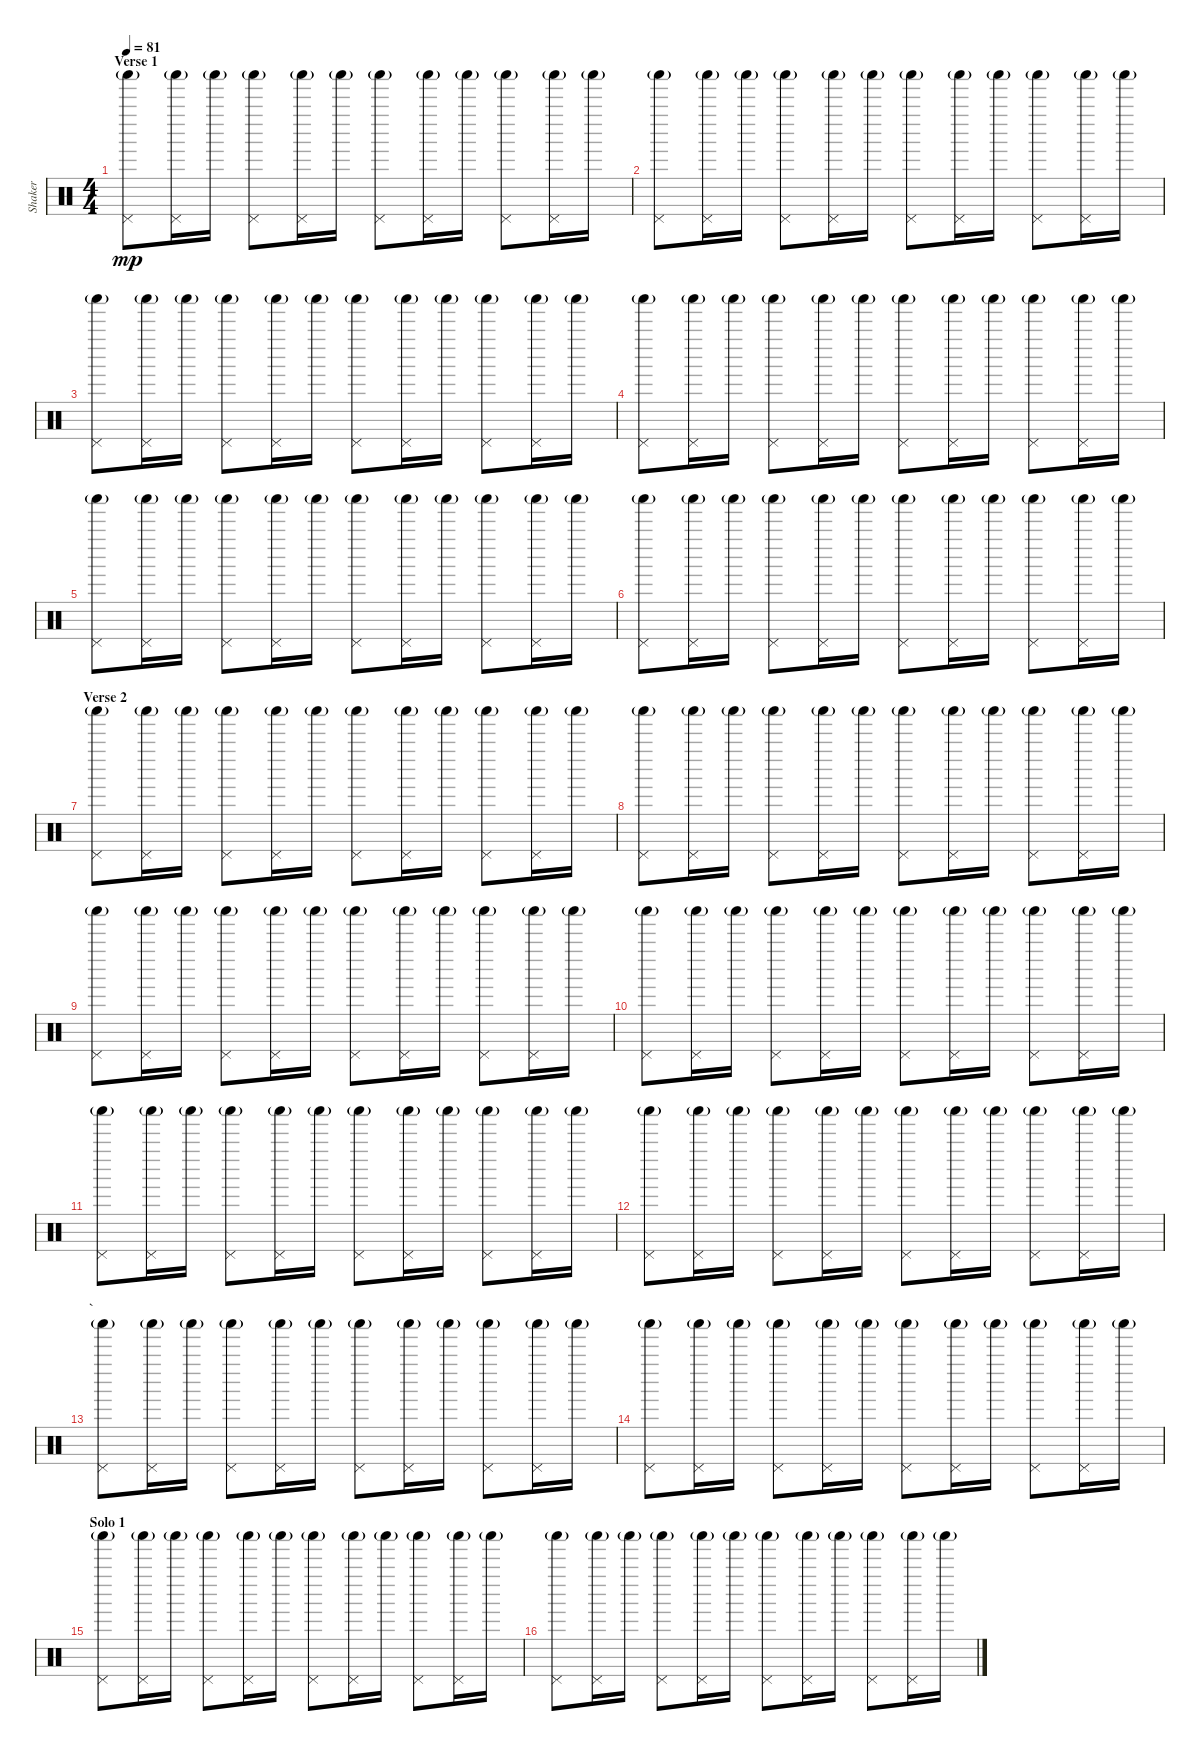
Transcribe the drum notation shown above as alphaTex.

\track ("Shaker" "Shaker") {instrument percussion}
\staff {score}
\articulation defaults
\ts (4 4)
\section ("" "Verse 1")
\tempo 81
\clef neutral
\ks c
("Pedal Hi-Hat (hit)" "Shaker (hit)"{g}).8{dy mp} ("Pedal Hi-Hat (hit)" "Shaker (hit)"{g}).16 "Shaker (hit)"{g}.16 ("Pedal Hi-Hat (hit)" "Shaker (hit)"{g}).8 ("Pedal Hi-Hat (hit)" "Shaker (hit)"{g}).16 "Shaker (hit)"{g}.16 ("Pedal Hi-Hat (hit)" "Shaker (hit)"{g}).8 ("Pedal Hi-Hat (hit)" "Shaker (hit)"{g}).16 "Shaker (hit)"{g}.16 ("Pedal Hi-Hat (hit)" "Shaker (hit)"{g}).8 ("Pedal Hi-Hat (hit)" "Shaker (hit)"{g}).16 "Shaker (hit)"{g}.16 |
("Pedal Hi-Hat (hit)" "Shaker (hit)"{g}).8 ("Pedal Hi-Hat (hit)" "Shaker (hit)"{g}).16 "Shaker (hit)"{g}.16 ("Pedal Hi-Hat (hit)" "Shaker (hit)"{g}).8 ("Pedal Hi-Hat (hit)" "Shaker (hit)"{g}).16 "Shaker (hit)"{g}.16 ("Pedal Hi-Hat (hit)" "Shaker (hit)"{g}).8 ("Pedal Hi-Hat (hit)" "Shaker (hit)"{g}).16 "Shaker (hit)"{g}.16 ("Pedal Hi-Hat (hit)" "Shaker (hit)"{g}).8 ("Pedal Hi-Hat (hit)" "Shaker (hit)"{g}).16 "Shaker (hit)"{g}.16 |
("Pedal Hi-Hat (hit)" "Shaker (hit)"{g}).8 ("Pedal Hi-Hat (hit)" "Shaker (hit)"{g}).16 "Shaker (hit)"{g}.16 ("Pedal Hi-Hat (hit)" "Shaker (hit)"{g}).8 ("Pedal Hi-Hat (hit)" "Shaker (hit)"{g}).16 "Shaker (hit)"{g}.16 ("Pedal Hi-Hat (hit)" "Shaker (hit)"{g}).8 ("Pedal Hi-Hat (hit)" "Shaker (hit)"{g}).16 "Shaker (hit)"{g}.16 ("Pedal Hi-Hat (hit)" "Shaker (hit)"{g}).8 ("Pedal Hi-Hat (hit)" "Shaker (hit)"{g}).16 "Shaker (hit)"{g}.16 |
("Pedal Hi-Hat (hit)" "Shaker (hit)"{g}).8 ("Pedal Hi-Hat (hit)" "Shaker (hit)"{g}).16 "Shaker (hit)"{g}.16 ("Pedal Hi-Hat (hit)" "Shaker (hit)"{g}).8 ("Pedal Hi-Hat (hit)" "Shaker (hit)"{g}).16 "Shaker (hit)"{g}.16 ("Pedal Hi-Hat (hit)" "Shaker (hit)"{g}).8 ("Pedal Hi-Hat (hit)" "Shaker (hit)"{g}).16 "Shaker (hit)"{g}.16 ("Pedal Hi-Hat (hit)" "Shaker (hit)"{g}).8 ("Pedal Hi-Hat (hit)" "Shaker (hit)"{g}).16 "Shaker (hit)"{g}.16 |
("Pedal Hi-Hat (hit)" "Shaker (hit)"{g}).8 ("Pedal Hi-Hat (hit)" "Shaker (hit)"{g}).16 "Shaker (hit)"{g}.16 ("Pedal Hi-Hat (hit)" "Shaker (hit)"{g}).8 ("Pedal Hi-Hat (hit)" "Shaker (hit)"{g}).16 "Shaker (hit)"{g}.16 ("Pedal Hi-Hat (hit)" "Shaker (hit)"{g}).8 ("Pedal Hi-Hat (hit)" "Shaker (hit)"{g}).16 "Shaker (hit)"{g}.16 ("Pedal Hi-Hat (hit)" "Shaker (hit)"{g}).8 ("Pedal Hi-Hat (hit)" "Shaker (hit)"{g}).16 "Shaker (hit)"{g}.16 |
("Pedal Hi-Hat (hit)" "Shaker (hit)"{g}).8 ("Pedal Hi-Hat (hit)" "Shaker (hit)"{g}).16 "Shaker (hit)"{g}.16 ("Pedal Hi-Hat (hit)" "Shaker (hit)"{g}).8 ("Pedal Hi-Hat (hit)" "Shaker (hit)"{g}).16 "Shaker (hit)"{g}.16 ("Pedal Hi-Hat (hit)" "Shaker (hit)"{g}).8 ("Pedal Hi-Hat (hit)" "Shaker (hit)"{g}).16 "Shaker (hit)"{g}.16 ("Pedal Hi-Hat (hit)" "Shaker (hit)"{g}).8 ("Pedal Hi-Hat (hit)" "Shaker (hit)"{g}).16 "Shaker (hit)"{g}.16 |
\section ("" "Verse 2")
("Pedal Hi-Hat (hit)" "Shaker (hit)"{g}).8 ("Pedal Hi-Hat (hit)" "Shaker (hit)"{g}).16 "Shaker (hit)"{g}.16 ("Pedal Hi-Hat (hit)" "Shaker (hit)"{g}).8 ("Pedal Hi-Hat (hit)" "Shaker (hit)"{g}).16 "Shaker (hit)"{g}.16 ("Pedal Hi-Hat (hit)" "Shaker (hit)"{g}).8 ("Pedal Hi-Hat (hit)" "Shaker (hit)"{g}).16 "Shaker (hit)"{g}.16 ("Pedal Hi-Hat (hit)" "Shaker (hit)"{g}).8 ("Pedal Hi-Hat (hit)" "Shaker (hit)"{g}).16 "Shaker (hit)"{g}.16 |
("Pedal Hi-Hat (hit)" "Shaker (hit)"{g}).8 ("Pedal Hi-Hat (hit)" "Shaker (hit)"{g}).16 "Shaker (hit)"{g}.16 ("Pedal Hi-Hat (hit)" "Shaker (hit)"{g}).8 ("Pedal Hi-Hat (hit)" "Shaker (hit)"{g}).16 "Shaker (hit)"{g}.16 ("Pedal Hi-Hat (hit)" "Shaker (hit)"{g}).8 ("Pedal Hi-Hat (hit)" "Shaker (hit)"{g}).16 "Shaker (hit)"{g}.16 ("Pedal Hi-Hat (hit)" "Shaker (hit)"{g}).8 ("Pedal Hi-Hat (hit)" "Shaker (hit)"{g}).16 "Shaker (hit)"{g}.16 |
("Pedal Hi-Hat (hit)" "Shaker (hit)"{g}).8 ("Pedal Hi-Hat (hit)" "Shaker (hit)"{g}).16 "Shaker (hit)"{g}.16 ("Pedal Hi-Hat (hit)" "Shaker (hit)"{g}).8 ("Pedal Hi-Hat (hit)" "Shaker (hit)"{g}).16 "Shaker (hit)"{g}.16 ("Pedal Hi-Hat (hit)" "Shaker (hit)"{g}).8 ("Pedal Hi-Hat (hit)" "Shaker (hit)"{g}).16 "Shaker (hit)"{g}.16 ("Pedal Hi-Hat (hit)" "Shaker (hit)"{g}).8 ("Pedal Hi-Hat (hit)" "Shaker (hit)"{g}).16 "Shaker (hit)"{g}.16 |
("Pedal Hi-Hat (hit)" "Shaker (hit)"{g}).8 ("Pedal Hi-Hat (hit)" "Shaker (hit)"{g}).16 "Shaker (hit)"{g}.16 ("Pedal Hi-Hat (hit)" "Shaker (hit)"{g}).8 ("Pedal Hi-Hat (hit)" "Shaker (hit)"{g}).16 "Shaker (hit)"{g}.16 ("Pedal Hi-Hat (hit)" "Shaker (hit)"{g}).8 ("Pedal Hi-Hat (hit)" "Shaker (hit)"{g}).16 "Shaker (hit)"{g}.16 ("Pedal Hi-Hat (hit)" "Shaker (hit)"{g}).8 ("Pedal Hi-Hat (hit)" "Shaker (hit)"{g}).16 "Shaker (hit)"{g}.16 |
("Pedal Hi-Hat (hit)" "Shaker (hit)"{g}).8 ("Pedal Hi-Hat (hit)" "Shaker (hit)"{g}).16 "Shaker (hit)"{g}.16 ("Pedal Hi-Hat (hit)" "Shaker (hit)"{g}).8 ("Pedal Hi-Hat (hit)" "Shaker (hit)"{g}).16 "Shaker (hit)"{g}.16 ("Pedal Hi-Hat (hit)" "Shaker (hit)"{g}).8 ("Pedal Hi-Hat (hit)" "Shaker (hit)"{g}).16 "Shaker (hit)"{g}.16 ("Pedal Hi-Hat (hit)" "Shaker (hit)"{g}).8 ("Pedal Hi-Hat (hit)" "Shaker (hit)"{g}).16 "Shaker (hit)"{g}.16 |
("Pedal Hi-Hat (hit)" "Shaker (hit)"{g}).8 ("Pedal Hi-Hat (hit)" "Shaker (hit)"{g}).16 "Shaker (hit)"{g}.16 ("Pedal Hi-Hat (hit)" "Shaker (hit)"{g}).8 ("Pedal Hi-Hat (hit)" "Shaker (hit)"{g}).16 "Shaker (hit)"{g}.16 ("Pedal Hi-Hat (hit)" "Shaker (hit)"{g}).8 ("Pedal Hi-Hat (hit)" "Shaker (hit)"{g}).16 "Shaker (hit)"{g}.16 ("Pedal Hi-Hat (hit)" "Shaker (hit)"{g}).8 ("Pedal Hi-Hat (hit)" "Shaker (hit)"{g}).16 "Shaker (hit)"{g}.16 |
\section ("" "`")
("Pedal Hi-Hat (hit)" "Shaker (hit)"{g}).8 ("Pedal Hi-Hat (hit)" "Shaker (hit)"{g}).16 "Shaker (hit)"{g}.16 ("Pedal Hi-Hat (hit)" "Shaker (hit)"{g}).8 ("Pedal Hi-Hat (hit)" "Shaker (hit)"{g}).16 "Shaker (hit)"{g}.16 ("Pedal Hi-Hat (hit)" "Shaker (hit)"{g}).8 ("Pedal Hi-Hat (hit)" "Shaker (hit)"{g}).16 "Shaker (hit)"{g}.16 ("Pedal Hi-Hat (hit)" "Shaker (hit)"{g}).8 ("Pedal Hi-Hat (hit)" "Shaker (hit)"{g}).16 "Shaker (hit)"{g}.16 |
("Pedal Hi-Hat (hit)" "Shaker (hit)"{g}).8 ("Pedal Hi-Hat (hit)" "Shaker (hit)"{g}).16 "Shaker (hit)"{g}.16 ("Pedal Hi-Hat (hit)" "Shaker (hit)"{g}).8 ("Pedal Hi-Hat (hit)" "Shaker (hit)"{g}).16 "Shaker (hit)"{g}.16 ("Pedal Hi-Hat (hit)" "Shaker (hit)"{g}).8 ("Pedal Hi-Hat (hit)" "Shaker (hit)"{g}).16 "Shaker (hit)"{g}.16 ("Pedal Hi-Hat (hit)" "Shaker (hit)"{g}).8 ("Pedal Hi-Hat (hit)" "Shaker (hit)"{g}).16 "Shaker (hit)"{g}.16 |
\section ("" "Solo 1")
("Pedal Hi-Hat (hit)" "Shaker (hit)"{g}).8 ("Pedal Hi-Hat (hit)" "Shaker (hit)"{g}).16 "Shaker (hit)"{g}.16 ("Pedal Hi-Hat (hit)" "Shaker (hit)"{g}).8 ("Pedal Hi-Hat (hit)" "Shaker (hit)"{g}).16 "Shaker (hit)"{g}.16 ("Pedal Hi-Hat (hit)" "Shaker (hit)"{g}).8 ("Pedal Hi-Hat (hit)" "Shaker (hit)"{g}).16 "Shaker (hit)"{g}.16 ("Pedal Hi-Hat (hit)" "Shaker (hit)"{g}).8 ("Pedal Hi-Hat (hit)" "Shaker (hit)"{g}).16 "Shaker (hit)"{g}.16 |
("Pedal Hi-Hat (hit)" "Shaker (hit)"{g}).8 ("Pedal Hi-Hat (hit)" "Shaker (hit)"{g}).16 "Shaker (hit)"{g}.16 ("Pedal Hi-Hat (hit)" "Shaker (hit)"{g}).8 ("Pedal Hi-Hat (hit)" "Shaker (hit)"{g}).16 "Shaker (hit)"{g}.16 ("Pedal Hi-Hat (hit)" "Shaker (hit)"{g}).8 ("Pedal Hi-Hat (hit)" "Shaker (hit)"{g}).16 "Shaker (hit)"{g}.16 ("Pedal Hi-Hat (hit)" "Shaker (hit)"{g}).8 ("Pedal Hi-Hat (hit)" "Shaker (hit)"{g}).16 "Shaker (hit)"{g}.16
